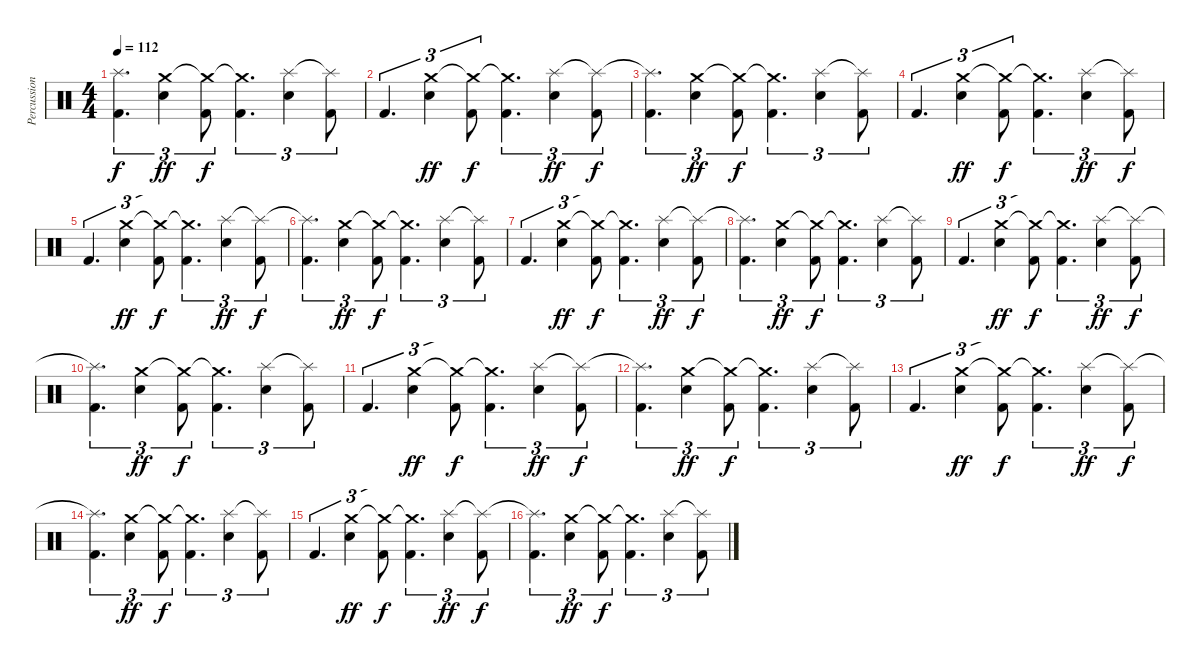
\track ("Percussioni" "Percussion") {instrument percussion}
\staff {score}
\articulation defaults
\ts (4 4)
\tempo 112
\clef neutral
\ks c
("Splash (hit)"{t} "Kick (hit) 2").4{d tu (3 2) dy f} ("Crash medium (hit)" "Snare (hit) 2").4{tu (3 2) dy ff} ("Crash medium (hit)"{t} "Kick (hit) 2").8{tu (3 2) dy f} ("Crash medium (hit)"{t} "Kick (hit) 2").4{d tu (3 2)} ("Splash (hit)" "Snare (hit) 2").4{tu (3 2)} ("Splash (hit)"{t} "Kick (hit) 2").8{tu (3 2)} |
"Kick (hit) 2".4{d tu (3 2)} ("Crash medium (hit)" "Snare (hit) 2").4{tu (3 2) dy ff} ("Crash medium (hit)"{t} "Kick (hit) 2").8{tu (3 2) dy f} ("Crash medium (hit)"{t} "Kick (hit) 2").4{d tu (3 2)} ("Splash (hit)" "Snare (hit) 2").4{tu (3 2) dy ff} ("Splash (hit)"{t} "Kick (hit) 2").8{tu (3 2) dy f} |
("Splash (hit)"{t} "Kick (hit) 2").4{d tu (3 2)} ("Crash medium (hit)" "Snare (hit) 2").4{tu (3 2) dy ff} ("Crash medium (hit)"{t} "Kick (hit) 2").8{tu (3 2) dy f} ("Crash medium (hit)"{t} "Kick (hit) 2").4{d tu (3 2)} ("Splash (hit)" "Snare (hit) 2").4{tu (3 2)} ("Splash (hit)"{t} "Kick (hit) 2").8{tu (3 2)} |
"Kick (hit) 2".4{d tu (3 2)} ("Crash medium (hit)" "Snare (hit) 2").4{tu (3 2) dy ff} ("Crash medium (hit)"{t} "Kick (hit) 2").8{tu (3 2) dy f} ("Crash medium (hit)"{t} "Kick (hit) 2").4{d tu (3 2)} ("Splash (hit)" "Snare (hit) 2").4{tu (3 2) dy ff} ("Splash (hit)"{t} "Kick (hit) 2").8{tu (3 2) dy f} |
"Kick (hit) 2".4{d tu (3 2)} ("Crash medium (hit)" "Snare (hit) 2").4{tu (3 2) dy ff} ("Crash medium (hit)"{t} "Kick (hit) 2").8{tu (3 2) dy f} ("Crash medium (hit)"{t} "Kick (hit) 2").4{d tu (3 2)} ("Splash (hit)" "Snare (hit) 2").4{tu (3 2) dy ff} ("Splash (hit)"{t} "Kick (hit) 2").8{tu (3 2) dy f} |
("Splash (hit)"{t} "Kick (hit) 2").4{d tu (3 2)} ("Crash medium (hit)" "Snare (hit) 2").4{tu (3 2) dy ff} ("Crash medium (hit)"{t} "Kick (hit) 2").8{tu (3 2) dy f} ("Crash medium (hit)"{t} "Kick (hit) 2").4{d tu (3 2)} ("Splash (hit)" "Snare (hit) 2").4{tu (3 2)} ("Splash (hit)"{t} "Kick (hit) 2").8{tu (3 2)} |
"Kick (hit) 2".4{d tu (3 2)} ("Crash medium (hit)" "Snare (hit) 2").4{tu (3 2) dy ff} ("Crash medium (hit)"{t} "Kick (hit) 2").8{tu (3 2) dy f} ("Crash medium (hit)"{t} "Kick (hit) 2").4{d tu (3 2)} ("Splash (hit)" "Snare (hit) 2").4{tu (3 2) dy ff} ("Splash (hit)"{t} "Kick (hit) 2").8{tu (3 2) dy f} |
("Splash (hit)"{t} "Kick (hit) 2").4{d tu (3 2)} ("Crash medium (hit)" "Snare (hit) 2").4{tu (3 2) dy ff} ("Crash medium (hit)"{t} "Kick (hit) 2").8{tu (3 2) dy f} ("Crash medium (hit)"{t} "Kick (hit) 2").4{d tu (3 2)} ("Splash (hit)" "Snare (hit) 2").4{tu (3 2)} ("Splash (hit)"{t} "Kick (hit) 2").8{tu (3 2)} |
"Kick (hit) 2".4{d tu (3 2)} ("Crash medium (hit)" "Snare (hit) 2").4{tu (3 2) dy ff} ("Crash medium (hit)"{t} "Kick (hit) 2").8{tu (3 2) dy f} ("Crash medium (hit)"{t} "Kick (hit) 2").4{d tu (3 2)} ("Splash (hit)" "Snare (hit) 2").4{tu (3 2) dy ff} ("Splash (hit)"{t} "Kick (hit) 2").8{tu (3 2) dy f} |
("Splash (hit)"{t} "Kick (hit) 2").4{d tu (3 2)} ("Crash medium (hit)" "Snare (hit) 2").4{tu (3 2) dy ff} ("Crash medium (hit)"{t} "Kick (hit) 2").8{tu (3 2) dy f} ("Crash medium (hit)"{t} "Kick (hit) 2").4{d tu (3 2)} ("Splash (hit)" "Snare (hit) 2").4{tu (3 2)} ("Splash (hit)"{t} "Kick (hit) 2").8{tu (3 2)} |
"Kick (hit) 2".4{d tu (3 2)} ("Crash medium (hit)" "Snare (hit) 2").4{tu (3 2) dy ff} ("Crash medium (hit)"{t} "Kick (hit) 2").8{tu (3 2) dy f} ("Crash medium (hit)"{t} "Kick (hit) 2").4{d tu (3 2)} ("Splash (hit)" "Snare (hit) 2").4{tu (3 2) dy ff} ("Splash (hit)"{t} "Kick (hit) 2").8{tu (3 2) dy f} |
("Splash (hit)"{t} "Kick (hit) 2").4{d tu (3 2)} ("Crash medium (hit)" "Snare (hit) 2").4{tu (3 2) dy ff} ("Crash medium (hit)"{t} "Kick (hit) 2").8{tu (3 2) dy f} ("Crash medium (hit)"{t} "Kick (hit) 2").4{d tu (3 2)} ("Splash (hit)" "Snare (hit) 2").4{tu (3 2)} ("Splash (hit)"{t} "Kick (hit) 2").8{tu (3 2)} |
"Kick (hit) 2".4{d tu (3 2)} ("Crash medium (hit)" "Snare (hit) 2").4{tu (3 2) dy ff} ("Crash medium (hit)"{t} "Kick (hit) 2").8{tu (3 2) dy f} ("Crash medium (hit)"{t} "Kick (hit) 2").4{d tu (3 2)} ("Splash (hit)" "Snare (hit) 2").4{tu (3 2) dy ff} ("Splash (hit)"{t} "Kick (hit) 2").8{tu (3 2) dy f} |
("Splash (hit)"{t} "Kick (hit) 2").4{d tu (3 2)} ("Crash medium (hit)" "Snare (hit) 2").4{tu (3 2) dy ff} ("Crash medium (hit)"{t} "Kick (hit) 2").8{tu (3 2) dy f} ("Crash medium (hit)"{t} "Kick (hit) 2").4{d tu (3 2)} ("Splash (hit)" "Snare (hit) 2").4{tu (3 2)} ("Splash (hit)"{t} "Kick (hit) 2").8{tu (3 2)} |
"Kick (hit) 2".4{d tu (3 2)} ("Crash medium (hit)" "Snare (hit) 2").4{tu (3 2) dy ff} ("Crash medium (hit)"{t} "Kick (hit) 2").8{tu (3 2) dy f} ("Crash medium (hit)"{t} "Kick (hit) 2").4{d tu (3 2)} ("Splash (hit)" "Snare (hit) 2").4{tu (3 2) dy ff} ("Splash (hit)"{t} "Kick (hit) 2").8{tu (3 2) dy f} |
("Splash (hit)"{t} "Kick (hit) 2").4{d tu (3 2)} ("Crash medium (hit)" "Snare (hit) 2").4{tu (3 2) dy ff} ("Crash medium (hit)"{t} "Kick (hit) 2").8{tu (3 2) dy f} ("Crash medium (hit)"{t} "Kick (hit) 2").4{d tu (3 2)} ("Splash (hit)" "Snare (hit) 2").4{tu (3 2)} ("Splash (hit)"{t} "Kick (hit) 2").8{tu (3 2)}
